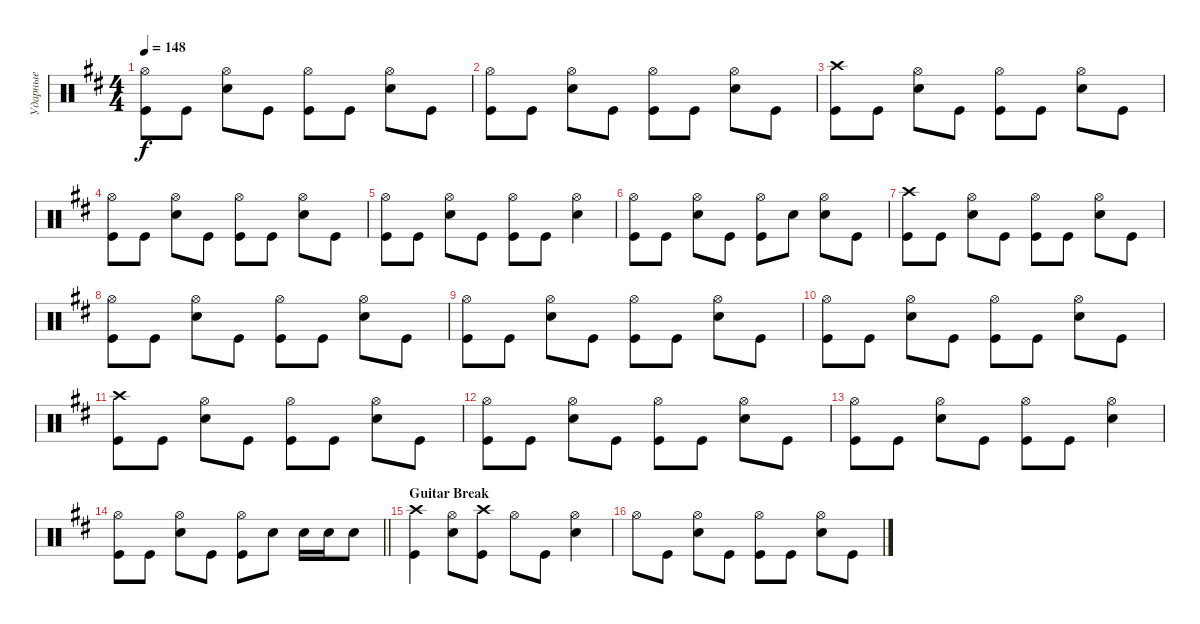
\track ("Ударные" "Ударные") {instrument percussion}
\staff {score}
\articulation defaults
\ts (4 4)
\tempo 148
\clef neutral
\ks bminor
("Hi-Hat (open)" "Kick (hit)").8{dy f} "Kick (hit)".8 ("Snare (hit) 2" "Hi-Hat (open)").8 "Kick (hit)".8 ("Kick (hit)" "Hi-Hat (open)").8 "Kick (hit)".8 ("Snare (hit) 2" "Hi-Hat (open)").8 "Kick (hit)".8 |
("Hi-Hat (open)" "Kick (hit)").8 "Kick (hit)".8 ("Snare (hit) 2" "Hi-Hat (open)").8 "Kick (hit)".8 ("Kick (hit)" "Hi-Hat (open)").8 "Kick (hit)".8 ("Snare (hit) 2" "Hi-Hat (open)").8 "Kick (hit)".8 |
("Crash high (hit)" "Kick (hit)").8 "Kick (hit)".8 ("Snare (hit) 2" "Hi-Hat (open)").8 "Kick (hit)".8 ("Kick (hit)" "Hi-Hat (open)").8 "Kick (hit)".8 ("Snare (hit) 2" "Hi-Hat (open)").8 "Kick (hit)".8 |
("Hi-Hat (open)" "Kick (hit)").8 "Kick (hit)".8 ("Snare (hit) 2" "Hi-Hat (open)").8 "Kick (hit)".8 ("Kick (hit)" "Hi-Hat (open)").8 "Kick (hit)".8 ("Snare (hit) 2" "Hi-Hat (open)").8 "Kick (hit)".8 |
("Hi-Hat (open)" "Kick (hit)").8 "Kick (hit)".8 ("Snare (hit) 2" "Hi-Hat (open)").8 "Kick (hit)".8 ("Kick (hit)" "Hi-Hat (open)").8 "Kick (hit)".8 ("Snare (hit) 2" "Hi-Hat (open)").4 |
("Hi-Hat (open)" "Kick (hit)").8 "Kick (hit)".8 ("Snare (hit) 2" "Hi-Hat (open)").8 "Kick (hit)".8 ("Kick (hit)" "Hi-Hat (open)").8 "Snare (hit) 2".8 ("Snare (hit) 2" "Hi-Hat (open)").8 "Kick (hit)".8 |
("Crash high (hit)" "Kick (hit)").8 "Kick (hit)".8 ("Snare (hit) 2" "Hi-Hat (open)").8 "Kick (hit)".8 ("Kick (hit)" "Hi-Hat (open)").8 "Kick (hit)".8 ("Snare (hit) 2" "Hi-Hat (open)").8 "Kick (hit)".8 |
("Hi-Hat (open)" "Kick (hit)").8 "Kick (hit)".8 ("Snare (hit) 2" "Hi-Hat (open)").8 "Kick (hit)".8 ("Kick (hit)" "Hi-Hat (open)").8 "Kick (hit)".8 ("Snare (hit) 2" "Hi-Hat (open)").8 "Kick (hit)".8 |
("Hi-Hat (open)" "Kick (hit)").8 "Kick (hit)".8 ("Snare (hit) 2" "Hi-Hat (open)").8 "Kick (hit)".8 ("Kick (hit)" "Hi-Hat (open)").8 "Kick (hit)".8 ("Snare (hit) 2" "Hi-Hat (open)").8 "Kick (hit)".8 |
("Hi-Hat (open)" "Kick (hit)").8 "Kick (hit)".8 ("Snare (hit) 2" "Hi-Hat (open)").8 "Kick (hit)".8 ("Kick (hit)" "Hi-Hat (open)").8 "Kick (hit)".8 ("Snare (hit) 2" "Hi-Hat (open)").8 "Kick (hit)".8 |
("Crash high (hit)" "Kick (hit)").8 "Kick (hit)".8 ("Snare (hit) 2" "Hi-Hat (open)").8 "Kick (hit)".8 ("Kick (hit)" "Hi-Hat (open)").8 "Kick (hit)".8 ("Snare (hit) 2" "Hi-Hat (open)").8 "Kick (hit)".8 |
("Hi-Hat (open)" "Kick (hit)").8 "Kick (hit)".8 ("Snare (hit) 2" "Hi-Hat (open)").8 "Kick (hit)".8 ("Kick (hit)" "Hi-Hat (open)").8 "Kick (hit)".8 ("Snare (hit) 2" "Hi-Hat (open)").8 "Kick (hit)".8 |
("Hi-Hat (open)" "Kick (hit)").8 "Kick (hit)".8 ("Snare (hit) 2" "Hi-Hat (open)").8 "Kick (hit)".8 ("Kick (hit)" "Hi-Hat (open)").8 "Kick (hit)".8 ("Snare (hit) 2" "Hi-Hat (open)").4 |
\barLineRight lightlight
("Hi-Hat (open)" "Kick (hit)").8 "Kick (hit)".8 ("Snare (hit) 2" "Hi-Hat (open)").8 "Kick (hit)".8 ("Kick (hit)" "Hi-Hat (open)").8 "Snare (hit) 2".8 "Snare (hit) 2".16 "Snare (hit) 2".16 "Snare (hit) 2".8 |
\section ("" "Guitar Break")
("Kick (hit)" "Crash high (hit)").4 ("Snare (hit) 2" "Hi-Hat (open)").8 ("Kick (hit)" "Crash high (hit)").8 "Hi-Hat (open)".8 "Kick (hit)".8 ("Snare (hit) 2" "Hi-Hat (open)").4 |
"Hi-Hat (open)".8 "Kick (hit)".8 ("Snare (hit) 2" "Hi-Hat (open)").8 "Kick (hit)".8 ("Kick (hit)" "Hi-Hat (open)").8 "Kick (hit)".8 ("Snare (hit) 2" "Hi-Hat (open)").8 "Kick (hit)".8
